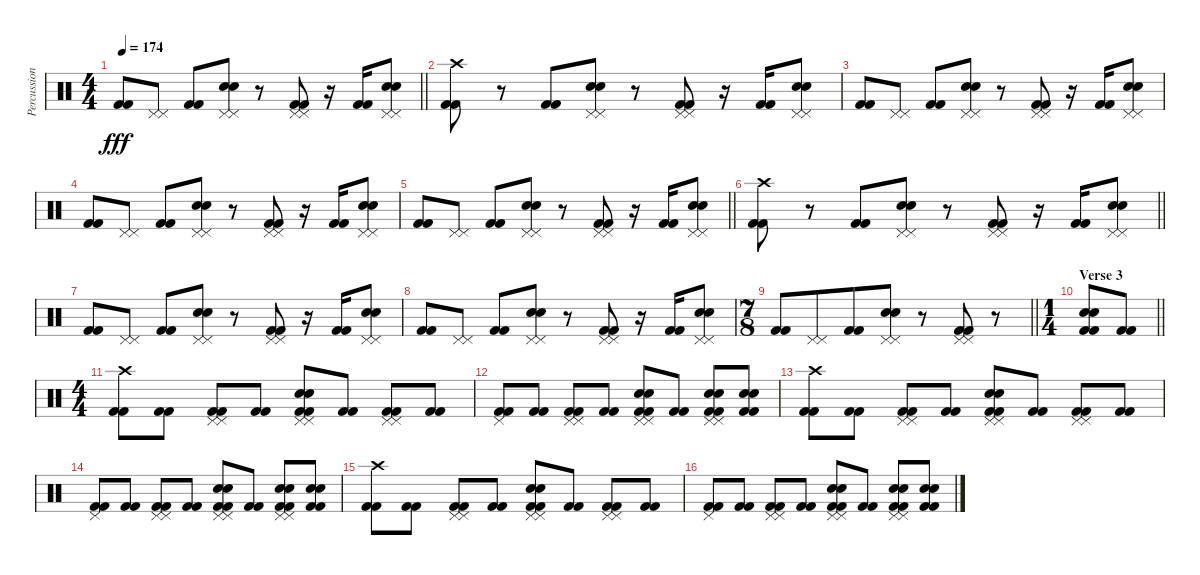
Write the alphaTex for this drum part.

\track ("Percussion" "Percussion") {instrument percussion}
\staff {score}
\articulation defaults
\ts (4 4)
\tempo 174
\clef neutral
\barLineRight lightlight
\ks c
("Kick (hit) 2" "Kick (hit) 2").8{dy fff} ("Pedal Hi-Hat (hit)" "Pedal Hi-Hat (hit)").8 ("Kick (hit) 2" "Kick (hit) 2").8 ("Pedal Hi-Hat (hit)" "Pedal Hi-Hat (hit)" "Electric Snare (hit)" "Electric Snare (hit)").8 r.8 ("Pedal Hi-Hat (hit)" "Pedal Hi-Hat (hit)" "Kick (hit) 2" "Kick (hit) 2").8 r.16 ("Kick (hit) 2" "Kick (hit) 2").16 ("Pedal Hi-Hat (hit)" "Pedal Hi-Hat (hit)" "Electric Snare (hit)" "Electric Snare (hit)").8 |
("Crash high (hit)" "Kick (hit) 2" "Kick (hit) 2").8 r.8 ("Kick (hit) 2" "Kick (hit) 2").8 ("Pedal Hi-Hat (hit)" "Pedal Hi-Hat (hit)" "Electric Snare (hit)" "Electric Snare (hit)").8 r.8 ("Pedal Hi-Hat (hit)" "Pedal Hi-Hat (hit)" "Kick (hit) 2" "Kick (hit) 2").8 r.16 ("Kick (hit) 2" "Kick (hit) 2").16 ("Pedal Hi-Hat (hit)" "Pedal Hi-Hat (hit)" "Electric Snare (hit)" "Electric Snare (hit)").8 |
("Kick (hit) 2" "Kick (hit) 2").8 ("Pedal Hi-Hat (hit)" "Pedal Hi-Hat (hit)").8 ("Kick (hit) 2" "Kick (hit) 2").8 ("Pedal Hi-Hat (hit)" "Pedal Hi-Hat (hit)" "Electric Snare (hit)" "Electric Snare (hit)").8 r.8 ("Pedal Hi-Hat (hit)" "Pedal Hi-Hat (hit)" "Kick (hit) 2" "Kick (hit) 2").8 r.16 ("Kick (hit) 2" "Kick (hit) 2").16 ("Pedal Hi-Hat (hit)" "Pedal Hi-Hat (hit)" "Electric Snare (hit)" "Electric Snare (hit)").8 |
("Kick (hit) 2" "Kick (hit) 2").8 ("Pedal Hi-Hat (hit)" "Pedal Hi-Hat (hit)").8 ("Kick (hit) 2" "Kick (hit) 2").8 ("Pedal Hi-Hat (hit)" "Pedal Hi-Hat (hit)" "Electric Snare (hit)" "Electric Snare (hit)").8 r.8 ("Pedal Hi-Hat (hit)" "Pedal Hi-Hat (hit)" "Kick (hit) 2" "Kick (hit) 2").8 r.16 ("Kick (hit) 2" "Kick (hit) 2").16 ("Pedal Hi-Hat (hit)" "Pedal Hi-Hat (hit)" "Electric Snare (hit)" "Electric Snare (hit)").8 |
\barLineRight lightlight
("Kick (hit) 2" "Kick (hit) 2").8 ("Pedal Hi-Hat (hit)" "Pedal Hi-Hat (hit)").8 ("Kick (hit) 2" "Kick (hit) 2").8 ("Pedal Hi-Hat (hit)" "Pedal Hi-Hat (hit)" "Electric Snare (hit)" "Electric Snare (hit)").8 r.8 ("Pedal Hi-Hat (hit)" "Pedal Hi-Hat (hit)" "Kick (hit) 2" "Kick (hit) 2").8 r.16 ("Kick (hit) 2" "Kick (hit) 2").16 ("Pedal Hi-Hat (hit)" "Pedal Hi-Hat (hit)" "Electric Snare (hit)" "Electric Snare (hit)").8 |
\barLineRight lightlight
("Crash high (hit)" "Kick (hit) 2" "Kick (hit) 2").8 r.8 ("Kick (hit) 2" "Kick (hit) 2").8 ("Pedal Hi-Hat (hit)" "Pedal Hi-Hat (hit)" "Electric Snare (hit)" "Electric Snare (hit)").8 r.8 ("Pedal Hi-Hat (hit)" "Pedal Hi-Hat (hit)" "Kick (hit) 2" "Kick (hit) 2").8 r.16 ("Kick (hit) 2" "Kick (hit) 2").16 ("Pedal Hi-Hat (hit)" "Pedal Hi-Hat (hit)" "Electric Snare (hit)" "Electric Snare (hit)").8 |
\section ("" "")
("Kick (hit) 2" "Kick (hit) 2").8 ("Pedal Hi-Hat (hit)" "Pedal Hi-Hat (hit)").8 ("Kick (hit) 2" "Kick (hit) 2").8 ("Pedal Hi-Hat (hit)" "Pedal Hi-Hat (hit)" "Electric Snare (hit)" "Electric Snare (hit)").8 r.8 ("Pedal Hi-Hat (hit)" "Pedal Hi-Hat (hit)" "Kick (hit) 2" "Kick (hit) 2").8 r.16 ("Kick (hit) 2" "Kick (hit) 2").16 ("Pedal Hi-Hat (hit)" "Pedal Hi-Hat (hit)" "Electric Snare (hit)" "Electric Snare (hit)").8 |
("Kick (hit) 2" "Kick (hit) 2").8 ("Pedal Hi-Hat (hit)" "Pedal Hi-Hat (hit)").8 ("Kick (hit) 2" "Kick (hit) 2").8 ("Pedal Hi-Hat (hit)" "Pedal Hi-Hat (hit)" "Electric Snare (hit)" "Electric Snare (hit)").8 r.8 ("Pedal Hi-Hat (hit)" "Pedal Hi-Hat (hit)" "Kick (hit) 2" "Kick (hit) 2").8 r.16 ("Kick (hit) 2" "Kick (hit) 2").16 ("Pedal Hi-Hat (hit)" "Pedal Hi-Hat (hit)" "Electric Snare (hit)" "Electric Snare (hit)").8 |
\ts (7 8)
\barLineRight lightlight
("Kick (hit) 2" "Kick (hit) 2").8 ("Pedal Hi-Hat (hit)" "Pedal Hi-Hat (hit)").8 ("Kick (hit) 2" "Kick (hit) 2").8 ("Pedal Hi-Hat (hit)" "Pedal Hi-Hat (hit)" "Electric Snare (hit)" "Electric Snare (hit)").8 r.8 ("Pedal Hi-Hat (hit)" "Pedal Hi-Hat (hit)" "Kick (hit) 2" "Kick (hit) 2").8 r.8 |
\ts (1 4)
\section ("" "Verse 3")
\barLineRight lightlight
("Electric Snare (hit)" "Electric Snare (hit)" "Kick (hit) 2" "Kick (hit) 2").8 ("Kick (hit) 2" "Kick (hit) 2").8 |
\ts (4 4)
("Crash high (hit)" "Kick (hit) 2" "Kick (hit) 2").8 ("Kick (hit) 2" "Kick (hit) 2").8 ("Pedal Hi-Hat (hit)" "Pedal Hi-Hat (hit)" "Kick (hit) 2" "Kick (hit) 2").8 ("Kick (hit) 2" "Kick (hit) 2").8 ("Pedal Hi-Hat (hit)" "Pedal Hi-Hat (hit)" "Electric Snare (hit)" "Electric Snare (hit)" "Kick (hit) 2" "Kick (hit) 2").8 ("Kick (hit) 2" "Kick (hit) 2").8 ("Pedal Hi-Hat (hit)" "Pedal Hi-Hat (hit)" "Kick (hit) 2" "Kick (hit) 2").8 ("Kick (hit) 2" "Kick (hit) 2").8 |
("Pedal Hi-Hat (hit)" "Kick (hit) 2" "Kick (hit) 2").8 ("Kick (hit) 2" "Kick (hit) 2").8 ("Pedal Hi-Hat (hit)" "Pedal Hi-Hat (hit)" "Kick (hit) 2" "Kick (hit) 2").8 ("Kick (hit) 2" "Kick (hit) 2").8 ("Pedal Hi-Hat (hit)" "Pedal Hi-Hat (hit)" "Electric Snare (hit)" "Electric Snare (hit)" "Kick (hit) 2" "Kick (hit) 2").8 ("Kick (hit) 2" "Kick (hit) 2").8 ("Pedal Hi-Hat (hit)" "Pedal Hi-Hat (hit)" "Electric Snare (hit)" "Electric Snare (hit)" "Kick (hit) 2" "Kick (hit) 2").8 ("Electric Snare (hit)" "Electric Snare (hit)" "Kick (hit) 2" "Kick (hit) 2").8 |
("Crash high (hit)" "Kick (hit) 2" "Kick (hit) 2").8 ("Kick (hit) 2" "Kick (hit) 2").8 ("Pedal Hi-Hat (hit)" "Pedal Hi-Hat (hit)" "Kick (hit) 2" "Kick (hit) 2").8 ("Kick (hit) 2" "Kick (hit) 2").8 ("Pedal Hi-Hat (hit)" "Pedal Hi-Hat (hit)" "Electric Snare (hit)" "Electric Snare (hit)" "Kick (hit) 2" "Kick (hit) 2").8 ("Kick (hit) 2" "Kick (hit) 2").8 ("Pedal Hi-Hat (hit)" "Pedal Hi-Hat (hit)" "Kick (hit) 2" "Kick (hit) 2").8 ("Kick (hit) 2" "Kick (hit) 2").8 |
("Pedal Hi-Hat (hit)" "Kick (hit) 2" "Kick (hit) 2").8 ("Kick (hit) 2" "Kick (hit) 2").8 ("Pedal Hi-Hat (hit)" "Pedal Hi-Hat (hit)" "Kick (hit) 2" "Kick (hit) 2").8 ("Kick (hit) 2" "Kick (hit) 2").8 ("Pedal Hi-Hat (hit)" "Pedal Hi-Hat (hit)" "Electric Snare (hit)" "Electric Snare (hit)" "Kick (hit) 2" "Kick (hit) 2").8 ("Kick (hit) 2" "Kick (hit) 2").8 ("Pedal Hi-Hat (hit)" "Pedal Hi-Hat (hit)" "Electric Snare (hit)" "Electric Snare (hit)" "Kick (hit) 2" "Kick (hit) 2").8 ("Electric Snare (hit)" "Electric Snare (hit)" "Kick (hit) 2" "Kick (hit) 2").8 |
("Crash high (hit)" "Kick (hit) 2" "Kick (hit) 2").8 ("Kick (hit) 2" "Kick (hit) 2").8 ("Pedal Hi-Hat (hit)" "Pedal Hi-Hat (hit)" "Kick (hit) 2" "Kick (hit) 2").8 ("Kick (hit) 2" "Kick (hit) 2").8 ("Pedal Hi-Hat (hit)" "Pedal Hi-Hat (hit)" "Electric Snare (hit)" "Electric Snare (hit)" "Kick (hit) 2" "Kick (hit) 2").8 ("Kick (hit) 2" "Kick (hit) 2").8 ("Pedal Hi-Hat (hit)" "Pedal Hi-Hat (hit)" "Kick (hit) 2" "Kick (hit) 2").8 ("Kick (hit) 2" "Kick (hit) 2").8 |
("Pedal Hi-Hat (hit)" "Kick (hit) 2" "Kick (hit) 2").8 ("Kick (hit) 2" "Kick (hit) 2").8 ("Pedal Hi-Hat (hit)" "Pedal Hi-Hat (hit)" "Kick (hit) 2" "Kick (hit) 2").8 ("Kick (hit) 2" "Kick (hit) 2").8 ("Pedal Hi-Hat (hit)" "Pedal Hi-Hat (hit)" "Electric Snare (hit)" "Electric Snare (hit)" "Kick (hit) 2" "Kick (hit) 2").8 ("Kick (hit) 2" "Kick (hit) 2").8 ("Pedal Hi-Hat (hit)" "Pedal Hi-Hat (hit)" "Electric Snare (hit)" "Electric Snare (hit)" "Kick (hit) 2" "Kick (hit) 2").8 ("Electric Snare (hit)" "Electric Snare (hit)" "Kick (hit) 2" "Kick (hit) 2").8
